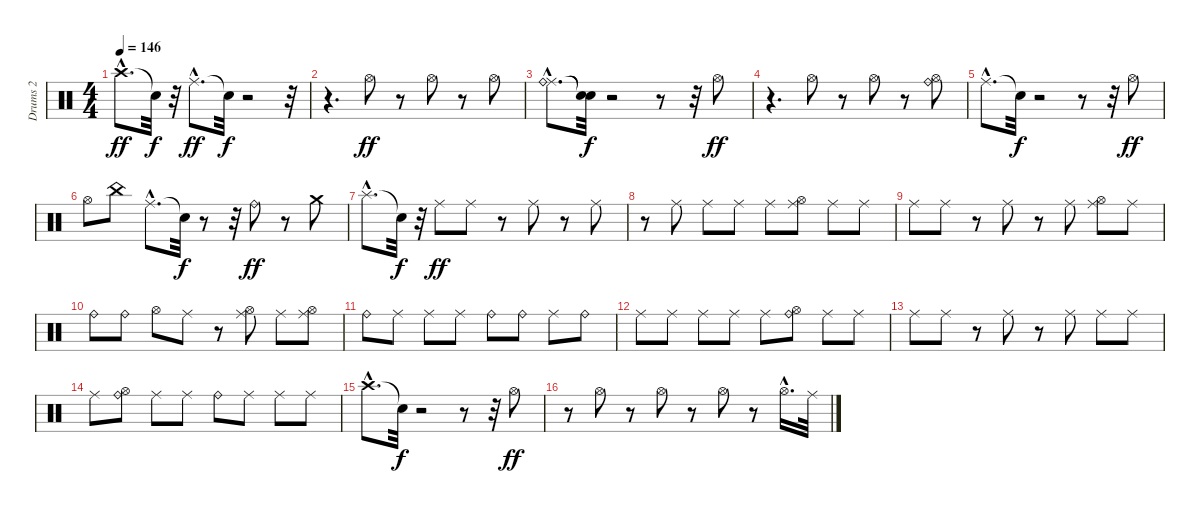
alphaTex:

\track ("Drums 2" "Drums 2") {instrument percussion}
\staff {score}
\articulation defaults
\ts (4 4)
\tempo 146
\clef neutral
\ks c "Crash high (hit)"{hac}.8{d dy ff} "Snare (hit)"{t}.32{dy f}
r.32 "Ride (middle)"{hac}.8{d dy ff} "Snare (hit)"{t}.32{dy f} r.2 r.32 |
r.4{d} "Hi-Hat (open)".8{dy ff} r.8 "Hi-Hat (open)".8 r.8 "Hi-Hat (open)".8 |
("Ride (middle)"{hac} "Ride (bell)"{hac}).8{d} ("Snare (hit)"{t} "Snare (hit)"{t}).32{dy f} r.2 r.8 r.32 "Hi-Hat (open)".8{dy ff} |
r.4{d} "Hi-Hat (open)".8 r.8 "Hi-Hat (open)".8 r.8 ("Hi-Hat (open)" "Ride (bell)").8 |
"Ride (middle)"{hac}.8{d} "Snare (hit)"{t}.32{dy f} r.2 r.8 r.32 "Hi-Hat (open)".8{dy ff} |
"Hi-Hat (open)".8 "China (hit)".8 "Ride (middle)"{hac}.8{d} "Snare (hit)"{t}.32{dy f} r.8 r.32 "Ride (bell)".8{dy ff} r.8 "Crash medium (hit)".8 |
"Splash (hit)"{hac}.8{d} "Snare (hit)"{t}.32{dy f} r.32 "Ride (middle)".8{dy ff} "Ride (middle)".8 r.8 "Ride (middle)".8 r.8 "Ride (middle)".8 |
r.8 "Ride (middle)".8 "Ride (middle)".8 "Ride (middle)".8 "Ride (middle)".8 ("Hi-Hat (open)" "Ride (middle)").8 "Ride (middle)".8 "Ride (middle)".8 |
"Ride (middle)".8 "Ride (middle)".8 r.8 "Ride (middle)".8 r.8 "Ride (middle)".8 ("Hi-Hat (open)" "Ride (middle)").8 "Ride (middle)".8 |
"Ride (bell)".8 "Ride (bell)".8 "Hi-Hat (open)".8 "Ride (middle)".8 r.8 ("Hi-Hat (open)" "Ride (middle)").8 "Ride (middle)".8 ("Hi-Hat (open)" "Ride (middle)").8 |
"Ride (bell)".8 "Ride (middle)".8 "Ride (middle)".8 "Ride (middle)".8 "Ride (bell)".8 "Ride (bell)".8 "Ride (middle)".8 "Ride (bell)".8 |
"Ride (middle)".8 "Ride (middle)".8 "Ride (middle)".8 "Ride (middle)".8 "Ride (middle)".8 ("Hi-Hat (open)" "Ride (bell)").8 "Ride (middle)".8 "Ride (middle)".8 |
"Ride (middle)".8 "Ride (middle)".8 r.8 "Ride (middle)".8 r.8 "Ride (middle)".8 "Ride (middle)".8 "Ride (middle)".8 |
"Ride (middle)".8 ("Hi-Hat (open)" "Ride (bell)").8 "Ride (middle)".8 "Ride (middle)".8 "Ride (bell)".8 "Ride (middle)".8 "Ride (middle)".8 "Ride (middle)".8 |
"Crash high (hit)"{hac}.8{d} "Snare (hit)"{t}.32{dy f} r.2 r.8 r.32 "Hi-Hat (open)".8{dy ff} |
r.8 "Hi-Hat (open)".8 r.8 "Hi-Hat (open)".8 r.8 "Hi-Hat (open)".8 r.8 "Hi-Hat (open)"{hac}.16{d} "Ride (middle)".32
